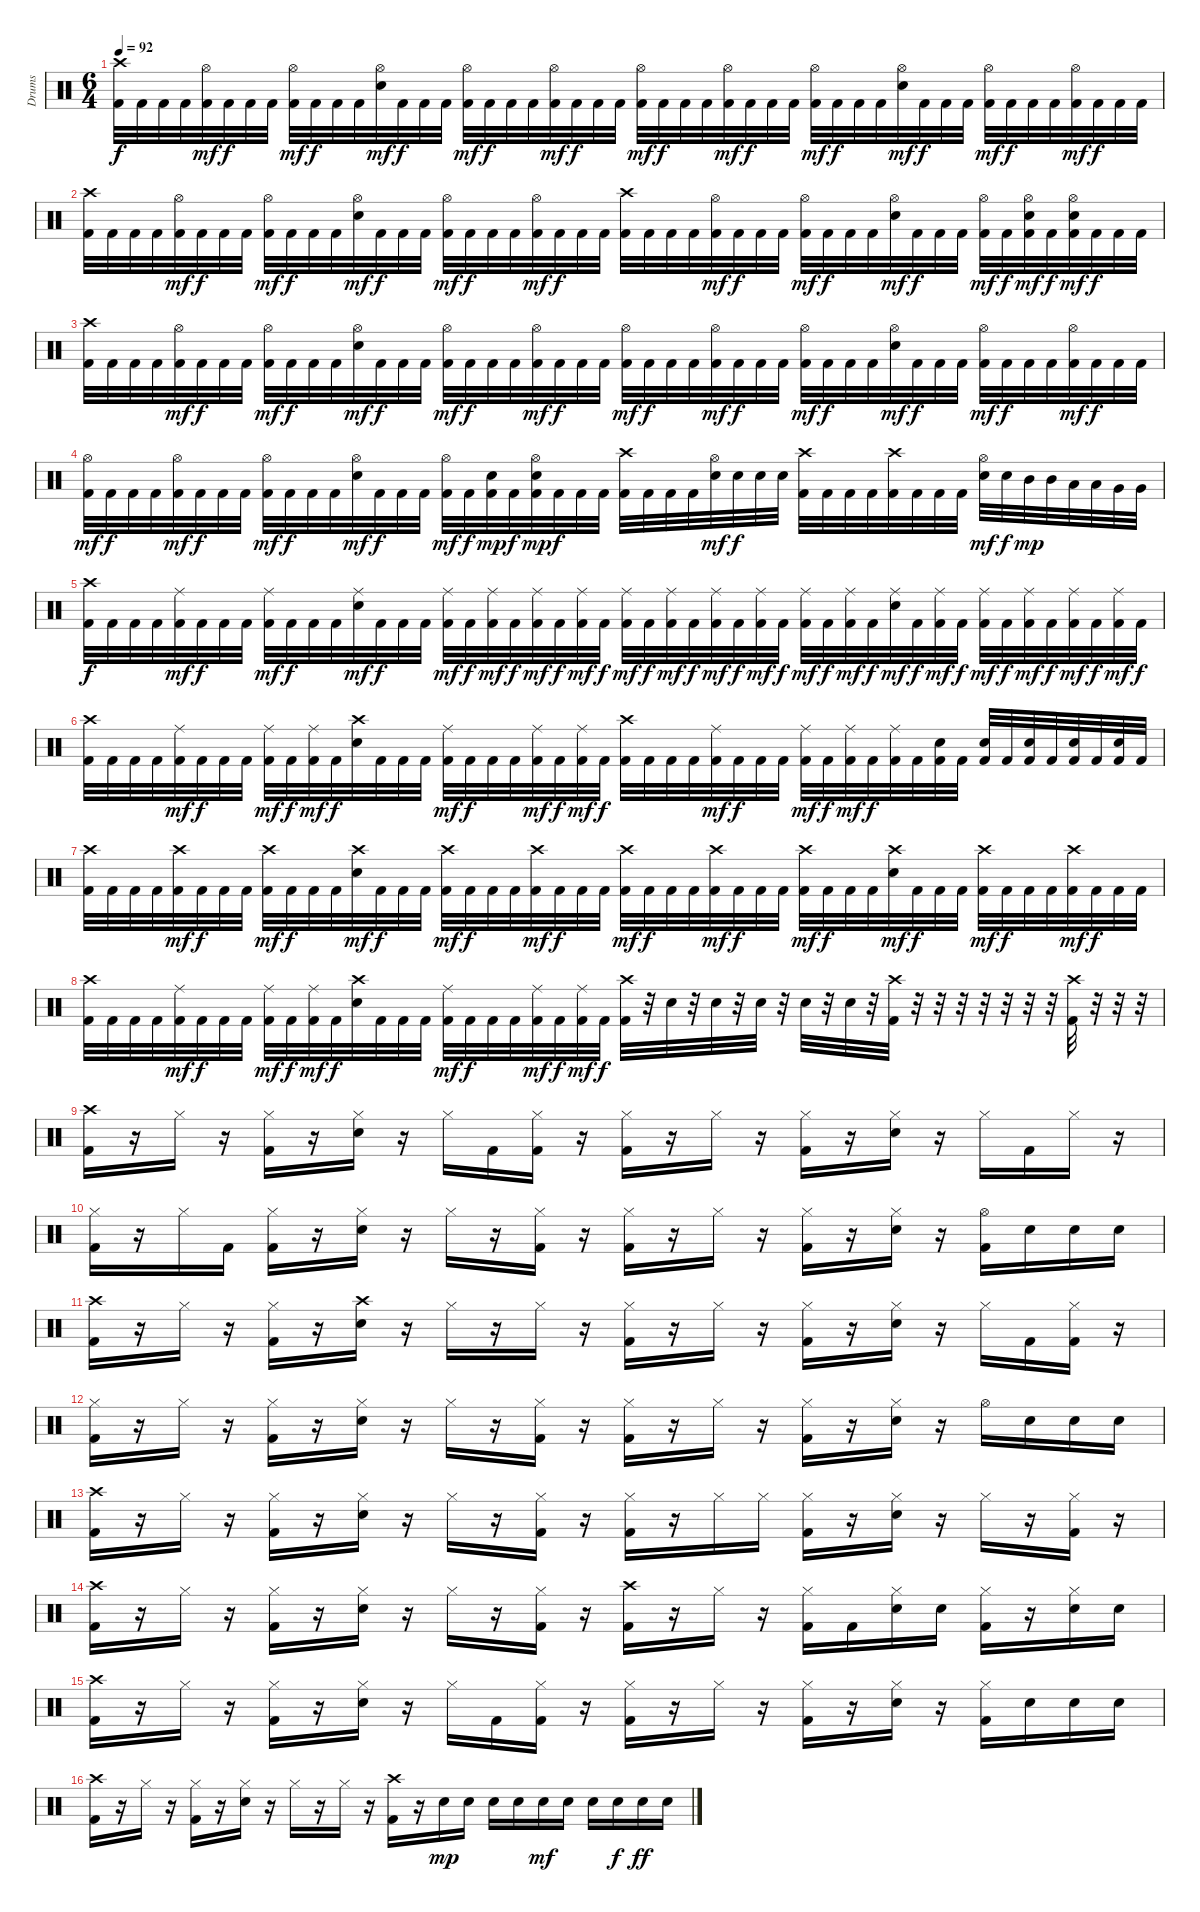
\track ("Drums" "Drums") {instrument percussion}
\staff {score}
\articulation defaults
\ts (6 4)
\tempo 92
\clef neutral
\ks c
("Crash high (hit)" "Kick (hit) 2").32{dy f} "Kick (hit) 2".32 "Kick (hit) 2".32 "Kick (hit) 2".32 ("Hi-Hat (open)" "Kick (hit) 2").32{dy mf} "Kick (hit) 2".32{dy f} "Kick (hit) 2".32 "Kick (hit) 2".32 ("Hi-Hat (open)" "Kick (hit) 2").32{dy mf} "Kick (hit) 2".32{dy f} "Kick (hit) 2".32 "Kick (hit) 2".32 ("Hi-Hat (open)" "Electric Snare (hit)").32{dy mf} "Kick (hit) 2".32{dy f} "Kick (hit) 2".32 "Kick (hit) 2".32 ("Hi-Hat (open)" "Kick (hit) 2").32{dy mf} "Kick (hit) 2".32{dy f} "Kick (hit) 2".32 "Kick (hit) 2".32 ("Hi-Hat (open)" "Kick (hit) 2").32{dy mf} "Kick (hit) 2".32{dy f} "Kick (hit) 2".32 "Kick (hit) 2".32 ("Hi-Hat (open)" "Kick (hit) 2").32{dy mf} "Kick (hit) 2".32{dy f} "Kick (hit) 2".32 "Kick (hit) 2".32 ("Hi-Hat (open)" "Kick (hit) 2").32{dy mf} "Kick (hit) 2".32{dy f} "Kick (hit) 2".32 "Kick (hit) 2".32 ("Hi-Hat (open)" "Kick (hit) 2").32{dy mf} "Kick (hit) 2".32{dy f} "Kick (hit) 2".32 "Kick (hit) 2".32 ("Hi-Hat (open)" "Electric Snare (hit)").32{dy mf} "Kick (hit) 2".32{dy f} "Kick (hit) 2".32 "Kick (hit) 2".32 ("Hi-Hat (open)" "Kick (hit) 2").32{dy mf} "Kick (hit) 2".32{dy f} "Kick (hit) 2".32 "Kick (hit) 2".32 ("Hi-Hat (open)" "Kick (hit) 2").32{dy mf} "Kick (hit) 2".32{dy f} "Kick (hit) 2".32 "Kick (hit) 2".32 |
("Crash high (hit)" "Kick (hit) 2").32 "Kick (hit) 2".32 "Kick (hit) 2".32 "Kick (hit) 2".32 ("Hi-Hat (open)" "Kick (hit) 2").32{dy mf} "Kick (hit) 2".32{dy f} "Kick (hit) 2".32 "Kick (hit) 2".32 ("Hi-Hat (open)" "Kick (hit) 2").32{dy mf} "Kick (hit) 2".32{dy f} "Kick (hit) 2".32 "Kick (hit) 2".32 ("Hi-Hat (open)" "Electric Snare (hit)").32{dy mf} "Kick (hit) 2".32{dy f} "Kick (hit) 2".32 "Kick (hit) 2".32 ("Hi-Hat (open)" "Kick (hit) 2").32{dy mf} "Kick (hit) 2".32{dy f} "Kick (hit) 2".32 "Kick (hit) 2".32 ("Hi-Hat (open)" "Kick (hit) 2").32{dy mf} "Kick (hit) 2".32{dy f} "Kick (hit) 2".32 "Kick (hit) 2".32 ("Crash high (hit)" "Kick (hit) 2").32 "Kick (hit) 2".32 "Kick (hit) 2".32 "Kick (hit) 2".32 ("Hi-Hat (open)" "Kick (hit) 2").32{dy mf} "Kick (hit) 2".32{dy f} "Kick (hit) 2".32 "Kick (hit) 2".32 ("Hi-Hat (open)" "Kick (hit) 2").32{dy mf} "Kick (hit) 2".32{dy f} "Kick (hit) 2".32 "Kick (hit) 2".32 ("Hi-Hat (open)" "Electric Snare (hit)").32{dy mf} "Kick (hit) 2".32{dy f} "Kick (hit) 2".32 "Kick (hit) 2".32 ("Hi-Hat (open)" "Kick (hit) 2").32{dy mf} "Kick (hit) 2".32{dy f} ("Hi-Hat (open)" "Electric Snare (hit)" "Kick (hit) 2").32{dy mf} "Kick (hit) 2".32{dy f} ("Hi-Hat (open)" "Electric Snare (hit)" "Kick (hit) 2").32{dy mf} "Kick (hit) 2".32{dy f} "Kick (hit) 2".32 "Kick (hit) 2".32 |
("Crash high (hit)" "Kick (hit) 2").32 "Kick (hit) 2".32 "Kick (hit) 2".32 "Kick (hit) 2".32 ("Hi-Hat (open)" "Kick (hit) 2").32{dy mf} "Kick (hit) 2".32{dy f} "Kick (hit) 2".32 "Kick (hit) 2".32 ("Hi-Hat (open)" "Kick (hit) 2").32{dy mf} "Kick (hit) 2".32{dy f} "Kick (hit) 2".32 "Kick (hit) 2".32 ("Hi-Hat (open)" "Electric Snare (hit)").32{dy mf} "Kick (hit) 2".32{dy f} "Kick (hit) 2".32 "Kick (hit) 2".32 ("Hi-Hat (open)" "Kick (hit) 2").32{dy mf} "Kick (hit) 2".32{dy f} "Kick (hit) 2".32 "Kick (hit) 2".32 ("Hi-Hat (open)" "Kick (hit) 2").32{dy mf} "Kick (hit) 2".32{dy f} "Kick (hit) 2".32 "Kick (hit) 2".32 ("Hi-Hat (open)" "Kick (hit) 2").32{dy mf} "Kick (hit) 2".32{dy f} "Kick (hit) 2".32 "Kick (hit) 2".32 ("Hi-Hat (open)" "Kick (hit) 2").32{dy mf} "Kick (hit) 2".32{dy f} "Kick (hit) 2".32 "Kick (hit) 2".32 ("Hi-Hat (open)" "Kick (hit) 2").32{dy mf} "Kick (hit) 2".32{dy f} "Kick (hit) 2".32 "Kick (hit) 2".32 ("Hi-Hat (open)" "Electric Snare (hit)").32{dy mf} "Kick (hit) 2".32{dy f} "Kick (hit) 2".32 "Kick (hit) 2".32 ("Hi-Hat (open)" "Kick (hit) 2").32{dy mf} "Kick (hit) 2".32{dy f} "Kick (hit) 2".32 "Kick (hit) 2".32 ("Hi-Hat (open)" "Kick (hit) 2").32{dy mf} "Kick (hit) 2".32{dy f} "Kick (hit) 2".32 "Kick (hit) 2".32 |
("Hi-Hat (open)" "Kick (hit) 2").32{dy mf} "Kick (hit) 2".32{dy f} "Kick (hit) 2".32 "Kick (hit) 2".32 ("Hi-Hat (open)" "Kick (hit) 2").32{dy mf} "Kick (hit) 2".32{dy f} "Kick (hit) 2".32 "Kick (hit) 2".32 ("Hi-Hat (open)" "Kick (hit) 2").32{dy mf} "Kick (hit) 2".32{dy f} "Kick (hit) 2".32 "Kick (hit) 2".32 ("Hi-Hat (open)" "Electric Snare (hit)").32{dy mf} "Kick (hit) 2".32{dy f} "Kick (hit) 2".32 "Kick (hit) 2".32 ("Hi-Hat (open)" "Kick (hit) 2").32{dy mf} "Kick (hit) 2".32{dy f} ("Electric Snare (hit)" "Kick (hit) 2").32{dy mp} "Kick (hit) 2".32{dy f} ("Hi-Hat (open)" "Electric Snare (hit)" "Kick (hit) 2").32{dy mp} "Kick (hit) 2".32{dy f} "Kick (hit) 2".32 "Kick (hit) 2".32 ("Crash high (hit)" "Kick (hit) 2").32 "Kick (hit) 2".32 "Kick (hit) 2".32 "Kick (hit) 2".32 ("Hi-Hat (open)" "Electric Snare (hit)").32{dy mf} "Electric Snare (hit)".32{dy f} "Electric Snare (hit)".32 "Electric Snare (hit)".32 ("Crash high (hit)" "Kick (hit) 2").32 "Kick (hit) 2".32 "Kick (hit) 2".32 "Kick (hit) 2".32 ("Crash high (hit)" "Kick (hit) 2").32 "Kick (hit) 2".32 "Kick (hit) 2".32 "Kick (hit) 2".32 ("Hi-Hat (open)" "Electric Snare (hit)").32{dy mf} "Electric Snare (hit)".32{dy f} "Mid Tom (hit)".32{dy mp} "Mid Tom (hit)".32 "Low Tom (hit)".32 "Low Tom (hit)".32 "Very Low Tom (hit)".32 "Very Low Tom (hit)".32 |
("Crash high (hit)" "Kick (hit) 2").32{dy f} "Kick (hit) 2".32 "Kick (hit) 2".32 "Kick (hit) 2".32 ("Ride (middle)" "Kick (hit) 2").32{dy mf} "Kick (hit) 2".32{dy f} "Kick (hit) 2".32 "Kick (hit) 2".32 ("Ride (middle)" "Kick (hit) 2").32{dy mf} "Kick (hit) 2".32{dy f} "Kick (hit) 2".32 "Kick (hit) 2".32 ("Ride (middle)" "Electric Snare (hit)").32{dy mf} "Kick (hit) 2".32{dy f} "Kick (hit) 2".32 "Kick (hit) 2".32 ("Ride (middle)" "Kick (hit) 2").32{dy mf} "Kick (hit) 2".32{dy f} ("Ride (middle)" "Kick (hit) 2").32{dy mf} "Kick (hit) 2".32{dy f} ("Ride (middle)" "Kick (hit) 2").32{dy mf} "Kick (hit) 2".32{dy f} ("Ride (middle)" "Kick (hit) 2").32{dy mf} "Kick (hit) 2".32{dy f} ("Ride (middle)" "Kick (hit) 2").32{dy mf} "Kick (hit) 2".32{dy f} ("Ride (middle)" "Kick (hit) 2").32{dy mf} "Kick (hit) 2".32{dy f} ("Ride (middle)" "Kick (hit) 2").32{dy mf} "Kick (hit) 2".32{dy f} ("Ride (middle)" "Kick (hit) 2").32{dy mf} "Kick (hit) 2".32{dy f} ("Ride (middle)" "Kick (hit) 2").32{dy mf} "Kick (hit) 2".32{dy f} ("Ride (middle)" "Kick (hit) 2").32{dy mf} "Kick (hit) 2".32{dy f} ("Ride (middle)" "Electric Snare (hit)").32{dy mf} "Kick (hit) 2".32{dy f} ("Ride (middle)" "Kick (hit) 2").32{dy mf} "Kick (hit) 2".32{dy f} ("Ride (middle)" "Kick (hit) 2").32{dy mf} "Kick (hit) 2".32{dy f} ("Ride (middle)" "Kick (hit) 2").32{dy mf} "Kick (hit) 2".32{dy f} ("Ride (middle)" "Kick (hit) 2").32{dy mf} "Kick (hit) 2".32{dy f} ("Ride (middle)" "Kick (hit) 2").32{dy mf} "Kick (hit) 2".32{dy f} |
("Crash high (hit)" "Kick (hit) 2").32 "Kick (hit) 2".32 "Kick (hit) 2".32 "Kick (hit) 2".32 ("Ride (middle)" "Kick (hit) 2").32{dy mf} "Kick (hit) 2".32{dy f} "Kick (hit) 2".32 "Kick (hit) 2".32 ("Ride (middle)" "Kick (hit) 2").32{dy mf} "Kick (hit) 2".32{dy f} ("Ride (middle)" "Kick (hit) 2").32{dy mf} "Kick (hit) 2".32{dy f} ("Crash high (hit)" "Electric Snare (hit)").32 "Kick (hit) 2".32 "Kick (hit) 2".32 "Kick (hit) 2".32 ("Ride (middle)" "Kick (hit) 2").32{dy mf} "Kick (hit) 2".32{dy f} "Kick (hit) 2".32 "Kick (hit) 2".32 ("Ride (middle)" "Kick (hit) 2").32{dy mf} "Kick (hit) 2".32{dy f} ("Ride (middle)" "Kick (hit) 2").32{dy mf} "Kick (hit) 2".32{dy f} ("Crash high (hit)" "Kick (hit) 2").32 "Kick (hit) 2".32 "Kick (hit) 2".32 "Kick (hit) 2".32 ("Ride (middle)" "Kick (hit) 2").32{dy mf} "Kick (hit) 2".32{dy f} "Kick (hit) 2".32 "Kick (hit) 2".32 ("Ride (middle)" "Kick (hit) 2").32{dy mf} "Kick (hit) 2".32{dy f} ("Ride (middle)" "Kick (hit) 2").32{dy mf} "Kick (hit) 2".32{dy f} ("Ride (middle)" "Kick (hit) 2").32 "Kick (hit) 2".32 ("Electric Snare (hit)" "Kick (hit) 2").32 "Kick (hit) 2".32 ("Electric Snare (hit)" "Kick (hit) 2").32 "Kick (hit) 2".32 ("Electric Snare (hit)" "Kick (hit) 2").32 "Kick (hit) 2".32 ("Electric Snare (hit)" "Kick (hit) 2").32 "Kick (hit) 2".32 ("Electric Snare (hit)" "Kick (hit) 2").32 "Kick (hit) 2".32 |
("Crash high (hit)" "Kick (hit) 2").32 "Kick (hit) 2".32 "Kick (hit) 2".32 "Kick (hit) 2".32 ("Crash high (hit)" "Kick (hit) 2").32{dy mf} "Kick (hit) 2".32{dy f} "Kick (hit) 2".32 "Kick (hit) 2".32 ("Crash high (hit)" "Kick (hit) 2").32{dy mf} "Kick (hit) 2".32{dy f} "Kick (hit) 2".32 "Kick (hit) 2".32 ("Crash high (hit)" "Electric Snare (hit)").32{dy mf} "Kick (hit) 2".32{dy f} "Kick (hit) 2".32 "Kick (hit) 2".32 ("Crash high (hit)" "Kick (hit) 2").32{dy mf} "Kick (hit) 2".32{dy f} "Kick (hit) 2".32 "Kick (hit) 2".32 ("Crash high (hit)" "Kick (hit) 2").32{dy mf} "Kick (hit) 2".32{dy f} "Kick (hit) 2".32 "Kick (hit) 2".32 ("Crash high (hit)" "Kick (hit) 2").32{dy mf} "Kick (hit) 2".32{dy f} "Kick (hit) 2".32 "Kick (hit) 2".32 ("Crash high (hit)" "Kick (hit) 2").32{dy mf} "Kick (hit) 2".32{dy f} "Kick (hit) 2".32 "Kick (hit) 2".32 ("Crash high (hit)" "Kick (hit) 2").32{dy mf} "Kick (hit) 2".32{dy f} "Kick (hit) 2".32 "Kick (hit) 2".32 ("Crash high (hit)" "Electric Snare (hit)").32{dy mf} "Kick (hit) 2".32{dy f} "Kick (hit) 2".32 "Kick (hit) 2".32 ("Crash high (hit)" "Kick (hit) 2").32{dy mf} "Kick (hit) 2".32{dy f} "Kick (hit) 2".32 "Kick (hit) 2".32 ("Crash high (hit)" "Kick (hit) 2").32{dy mf} "Kick (hit) 2".32{dy f} "Kick (hit) 2".32 "Kick (hit) 2".32 |
("Crash high (hit)" "Kick (hit) 2").32 "Kick (hit) 2".32 "Kick (hit) 2".32 "Kick (hit) 2".32 ("Ride (middle)" "Kick (hit) 2").32{dy mf} "Kick (hit) 2".32{dy f} "Kick (hit) 2".32 "Kick (hit) 2".32 ("Ride (middle)" "Kick (hit) 2").32{dy mf} "Kick (hit) 2".32{dy f} ("Ride (middle)" "Kick (hit) 2").32{dy mf} "Kick (hit) 2".32{dy f} ("Crash high (hit)" "Electric Snare (hit)").32 "Kick (hit) 2".32 "Kick (hit) 2".32 "Kick (hit) 2".32 ("Ride (middle)" "Kick (hit) 2").32{dy mf} "Kick (hit) 2".32{dy f} "Kick (hit) 2".32 "Kick (hit) 2".32 ("Ride (middle)" "Kick (hit) 2").32{dy mf} "Kick (hit) 2".32{dy f} ("Ride (middle)" "Kick (hit) 2").32{dy mf} "Kick (hit) 2".32{dy f} ("Crash high (hit)" "Kick (hit) 2").32 r.32 "Electric Snare (hit)".32 r.32 "Electric Snare (hit)".32 r.32 "Electric Snare (hit)".32 r.32 "Electric Snare (hit)".32 r.32 "Electric Snare (hit)".32 r.32 ("Crash high (hit)" "Kick (hit) 2").32 r.32 r.32 r.32 r.32 r.32 r.32 r.32 ("Crash high (hit)" "Kick (hit) 2").32 r.32 r.32 r.32 |
("Crash high (hit)" "Kick (hit) 2").16 r.16 "Hi-Hat (closed)".16 r.16 ("Hi-Hat (closed)" "Kick (hit) 2").16 r.16 ("Hi-Hat (closed)" "Electric Snare (hit)").16 r.16 "Hi-Hat (closed)".16 "Kick (hit) 2".16 ("Hi-Hat (closed)" "Kick (hit) 2").16 r.16 ("Hi-Hat (closed)" "Kick (hit) 2").16 r.16 "Hi-Hat (closed)".16 r.16 ("Hi-Hat (closed)" "Kick (hit) 2").16 r.16 ("Hi-Hat (closed)" "Electric Snare (hit)").16 r.16 "Hi-Hat (closed)".16 "Kick (hit) 2".16 "Hi-Hat (closed)".16 r.16 |
("Hi-Hat (closed)" "Kick (hit) 2").16 r.16 "Hi-Hat (closed)".16 "Kick (hit) 2".16 ("Hi-Hat (closed)" "Kick (hit) 2").16 r.16 ("Hi-Hat (closed)" "Electric Snare (hit)").16 r.16 "Hi-Hat (closed)".16 r.16 ("Hi-Hat (closed)" "Kick (hit) 2").16 r.16 ("Hi-Hat (closed)" "Kick (hit) 2").16 r.16 "Hi-Hat (closed)".16 r.16 ("Hi-Hat (closed)" "Kick (hit) 2").16 r.16 ("Hi-Hat (closed)" "Electric Snare (hit)").16 r.16 ("Hi-Hat (open)" "Kick (hit) 2").16 "Electric Snare (hit)".16 "Electric Snare (hit)".16 "Electric Snare (hit)".16 |
("Crash high (hit)" "Kick (hit) 2").16 r.16 "Hi-Hat (closed)".16 r.16 ("Hi-Hat (closed)" "Kick (hit) 2").16 r.16 ("Crash high (hit)" "Electric Snare (hit)").16 r.16 "Hi-Hat (closed)".16 r.16 "Hi-Hat (closed)".16 r.16 ("Hi-Hat (closed)" "Kick (hit) 2").16 r.16 "Hi-Hat (closed)".16 r.16 ("Hi-Hat (closed)" "Kick (hit) 2").16 r.16 ("Hi-Hat (closed)" "Electric Snare (hit)").16 r.16 "Hi-Hat (closed)".16 "Kick (hit) 2".16 ("Hi-Hat (closed)" "Kick (hit) 2").16 r.16 |
("Hi-Hat (closed)" "Kick (hit) 2").16 r.16 "Hi-Hat (closed)".16 r.16 ("Hi-Hat (closed)" "Kick (hit) 2").16 r.16 ("Hi-Hat (closed)" "Electric Snare (hit)").16 r.16 "Hi-Hat (closed)".16 r.16 ("Hi-Hat (closed)" "Kick (hit) 2").16 r.16 ("Hi-Hat (closed)" "Kick (hit) 2").16 r.16 "Hi-Hat (closed)".16 r.16 ("Hi-Hat (closed)" "Kick (hit) 2").16 r.16 ("Hi-Hat (closed)" "Electric Snare (hit)").16 r.16 "Hi-Hat (open)".16 "Electric Snare (hit)".16 "Electric Snare (hit)".16 "Electric Snare (hit)".16 |
("Crash high (hit)" "Kick (hit) 2").16 r.16 "Hi-Hat (closed)".16 r.16 ("Hi-Hat (closed)" "Kick (hit) 2").16 r.16 ("Hi-Hat (closed)" "Electric Snare (hit)").16 r.16 "Hi-Hat (closed)".16 r.16 ("Hi-Hat (closed)" "Kick (hit) 2").16 r.16 ("Hi-Hat (closed)" "Kick (hit) 2").16 r.16 "Hi-Hat (closed)".16 "Hi-Hat (closed)".16 ("Hi-Hat (closed)" "Kick (hit) 2").16 r.16 ("Hi-Hat (closed)" "Electric Snare (hit)").16 r.16 "Hi-Hat (closed)".16 r.16 ("Hi-Hat (closed)" "Kick (hit) 2").16 r.16 |
("Crash high (hit)" "Kick (hit) 2").16 r.16 "Hi-Hat (closed)".16 r.16 ("Hi-Hat (closed)" "Kick (hit) 2").16 r.16 ("Hi-Hat (closed)" "Electric Snare (hit)").16 r.16 "Hi-Hat (closed)".16 r.16 ("Hi-Hat (closed)" "Kick (hit) 2").16 r.16 ("Crash high (hit)" "Kick (hit) 2").16 r.16 "Hi-Hat (closed)".16 r.16 ("Hi-Hat (closed)" "Kick (hit) 2").16 "Kick (hit) 2".16 ("Hi-Hat (closed)" "Electric Snare (hit)").16 "Electric Snare (hit)".16 ("Hi-Hat (closed)" "Kick (hit) 2").16 r.16 ("Hi-Hat (closed)" "Electric Snare (hit)").16 "Electric Snare (hit)".16 |
("Crash high (hit)" "Kick (hit) 2").16 r.16 "Hi-Hat (closed)".16 r.16 ("Hi-Hat (closed)" "Kick (hit) 2").16 r.16 ("Hi-Hat (closed)" "Electric Snare (hit)").16 r.16 "Hi-Hat (closed)".16 "Kick (hit) 2".16 ("Hi-Hat (closed)" "Kick (hit) 2").16 r.16 ("Hi-Hat (closed)" "Kick (hit) 2").16 r.16 "Hi-Hat (closed)".16 r.16 ("Hi-Hat (closed)" "Kick (hit) 2").16 r.16 ("Hi-Hat (closed)" "Electric Snare (hit)").16 r.16 ("Hi-Hat (closed)" "Kick (hit) 2").16 "Electric Snare (hit)".16 "Electric Snare (hit)".16 "Electric Snare (hit)".16 |
("Crash high (hit)" "Kick (hit) 2").16 r.16 "Hi-Hat (closed)".16 r.16 ("Hi-Hat (closed)" "Kick (hit) 2").16 r.16 ("Hi-Hat (closed)" "Electric Snare (hit)").16 r.16 "Hi-Hat (closed)".16 r.16 "Hi-Hat (closed)".16 r.16 ("Crash high (hit)" "Kick (hit) 2").16 r.16 "Electric Snare (hit)".16{dy mp} "Electric Snare (hit)".16 "Electric Snare (hit)".16 "Electric Snare (hit)".16 "Electric Snare (hit)".16{dy mf} "Electric Snare (hit)".16 "Electric Snare (hit)".16 "Electric Snare (hit)".16{dy f} "Electric Snare (hit)".16{dy ff} "Electric Snare (hit)".16
